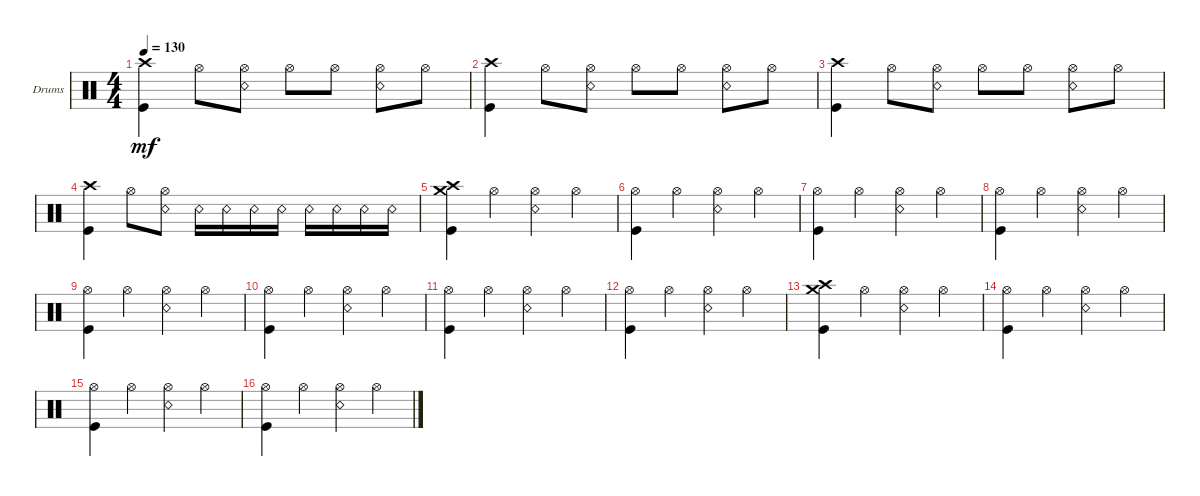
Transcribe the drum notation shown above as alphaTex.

\defaultSystemsLayout 4
\bracketExtendMode groupsimilarinstruments
\firstSystemTrackNameOrientation horizontal
\otherSystemsTrackNameOrientation horizontal
\track ("Drumkit" "Drums") {instrument percussion}
\staff {score}
\articulation defaults
\ts (4 4)
\tempo 130
\clef neutral
\ks c
("Crash high (hit)" "Kick (hit)").4{dy mf} "Hi-Hat (open)".8 ("Hi-Hat (open)" "Snare (rim shot)").8 "Hi-Hat (open)".8 "Hi-Hat (open)".8 ("Hi-Hat (open)" "Snare (rim shot)").8 "Hi-Hat (open)".8 |
("Crash high (hit)" "Kick (hit)").4 "Hi-Hat (open)".8 ("Hi-Hat (open)" "Snare (rim shot)").8 "Hi-Hat (open)".8 "Hi-Hat (open)".8 ("Hi-Hat (open)" "Snare (rim shot)").8 "Hi-Hat (open)".8 |
("Crash high (hit)" "Kick (hit)").4 "Hi-Hat (open)".8 ("Hi-Hat (open)" "Snare (rim shot)").8 "Hi-Hat (open)".8 "Hi-Hat (open)".8 ("Hi-Hat (open)" "Snare (rim shot)").8 "Hi-Hat (open)".8 |
("Crash high (hit)" "Kick (hit)").4 "Hi-Hat (open)".8 ("Hi-Hat (open)" "Snare (rim shot)").8 "Snare (rim shot)".16 "Snare (rim shot)".16 "Snare (rim shot)".16 "Snare (rim shot)".16 "Snare (rim shot)".16 "Snare (rim shot)".16 "Snare (rim shot)".16 "Snare (rim shot)".16 |
("Crash medium (hit)" "Crash high (hit)" "Kick (hit)").4 "Hi-Hat (open)".4 ("Hi-Hat (open)" "Snare (rim shot)").4 "Hi-Hat (open)".4 |
("Hi-Hat (open)" "Kick (hit)").4 "Hi-Hat (open)".4 ("Hi-Hat (open)" "Snare (rim shot)").4 "Hi-Hat (open)".4 |
("Hi-Hat (open)" "Kick (hit)").4 "Hi-Hat (open)".4 ("Hi-Hat (open)" "Snare (rim shot)").4 "Hi-Hat (open)".4 |
("Hi-Hat (open)" "Kick (hit)").4 "Hi-Hat (open)".4 ("Hi-Hat (open)" "Snare (rim shot)").4 "Hi-Hat (open)".4 |
("Hi-Hat (open)" "Kick (hit)").4 "Hi-Hat (open)".4 ("Hi-Hat (open)" "Snare (rim shot)").4 "Hi-Hat (open)".4 |
("Hi-Hat (open)" "Kick (hit)").4 "Hi-Hat (open)".4 ("Hi-Hat (open)" "Snare (rim shot)").4 "Hi-Hat (open)".4 |
("Hi-Hat (open)" "Kick (hit)").4 "Hi-Hat (open)".4 ("Snare (rim shot)" "Hi-Hat (open)").4 "Hi-Hat (open)".4 |
("Hi-Hat (open)" "Kick (hit)").4 "Hi-Hat (open)".4 ("Hi-Hat (open)" "Snare (rim shot)").4 "Hi-Hat (open)".4 |
("Crash medium (hit)" "Crash high (hit)" "Kick (hit)").4 "Hi-Hat (open)".4 ("Hi-Hat (open)" "Snare (rim shot)").4 "Hi-Hat (open)".4 |
("Hi-Hat (open)" "Kick (hit)").4 "Hi-Hat (open)".4 ("Hi-Hat (open)" "Snare (rim shot)").4 "Hi-Hat (open)".4 |
("Hi-Hat (open)" "Kick (hit)").4 "Hi-Hat (open)".4 ("Hi-Hat (open)" "Snare (rim shot)").4 "Hi-Hat (open)".4 |
("Hi-Hat (open)" "Kick (hit)").4 "Hi-Hat (open)".4 ("Hi-Hat (open)" "Snare (rim shot)").4 "Hi-Hat (open)".4
